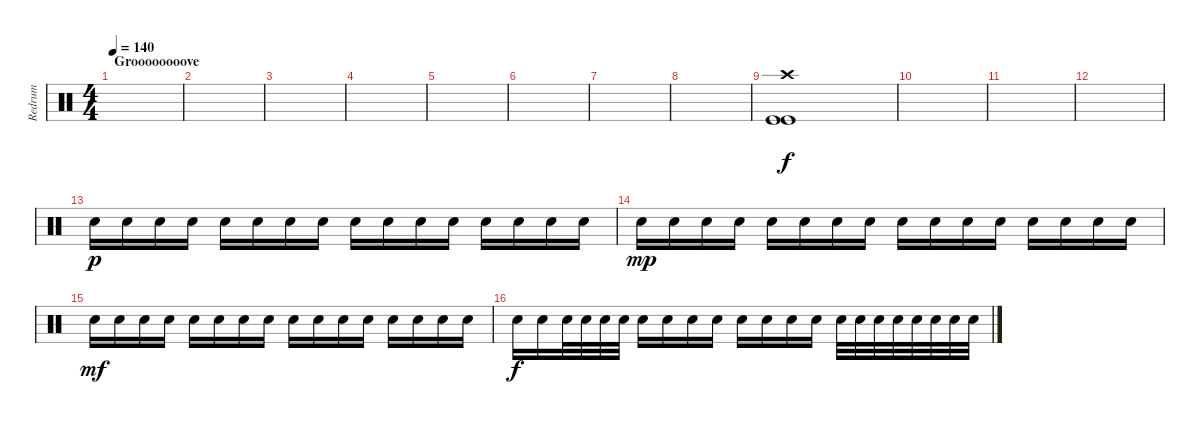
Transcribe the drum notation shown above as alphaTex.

\track ("Redrum" "Redrum") {instrument percussion}
\staff {score}
\articulation defaults
\ts (4 4)
\section ("" "Groooooooove")
\tempo 140
\clef neutral
\ks c
|
|
|
|
|
|
|
|
("Crash high (hit)" "Kick (hit)" "Kick (hit)").1 |
|
|
|
"Snare (hit) 2".16{dy p} "Snare (hit) 2".16 "Snare (hit) 2".16 "Snare (hit) 2".16 "Snare (hit) 2".16 "Snare (hit) 2".16 "Snare (hit) 2".16 "Snare (hit) 2".16 "Snare (hit) 2".16 "Snare (hit) 2".16 "Snare (hit) 2".16 "Snare (hit) 2".16 "Snare (hit) 2".16 "Snare (hit) 2".16 "Snare (hit) 2".16 "Snare (hit) 2".16 |
"Snare (hit) 2".16{dy mp} "Snare (hit) 2".16 "Snare (hit) 2".16 "Snare (hit) 2".16 "Snare (hit) 2".16 "Snare (hit) 2".16 "Snare (hit) 2".16 "Snare (hit) 2".16 "Snare (hit) 2".16 "Snare (hit) 2".16 "Snare (hit) 2".16 "Snare (hit) 2".16 "Snare (hit) 2".16 "Snare (hit) 2".16 "Snare (hit) 2".16 "Snare (hit) 2".16 |
"Snare (hit) 2".16{dy mf} "Snare (hit) 2".16 "Snare (hit) 2".16 "Snare (hit) 2".16 "Snare (hit) 2".16 "Snare (hit) 2".16 "Snare (hit) 2".16 "Snare (hit) 2".16 "Snare (hit) 2".16 "Snare (hit) 2".16 "Snare (hit) 2".16 "Snare (hit) 2".16 "Snare (hit) 2".16 "Snare (hit) 2".16 "Snare (hit) 2".16 "Snare (hit) 2".16 |
"Snare (hit) 2".16{dy f} "Snare (hit) 2".16 "Snare (hit) 2".32 "Snare (hit) 2".32 "Snare (hit) 2".32 "Snare (hit) 2".32 "Snare (hit) 2".16 "Snare (hit) 2".16 "Snare (hit) 2".16 "Snare (hit) 2".16 "Snare (hit) 2".16 "Snare (hit) 2".16 "Snare (hit) 2".16 "Snare (hit) 2".16 "Snare (hit) 2".32 "Snare (hit) 2".32 "Snare (hit) 2".32 "Snare (hit) 2".32 "Snare (hit) 2".32 "Snare (hit) 2".32 "Snare (hit) 2".32 "Snare (hit) 2".32
